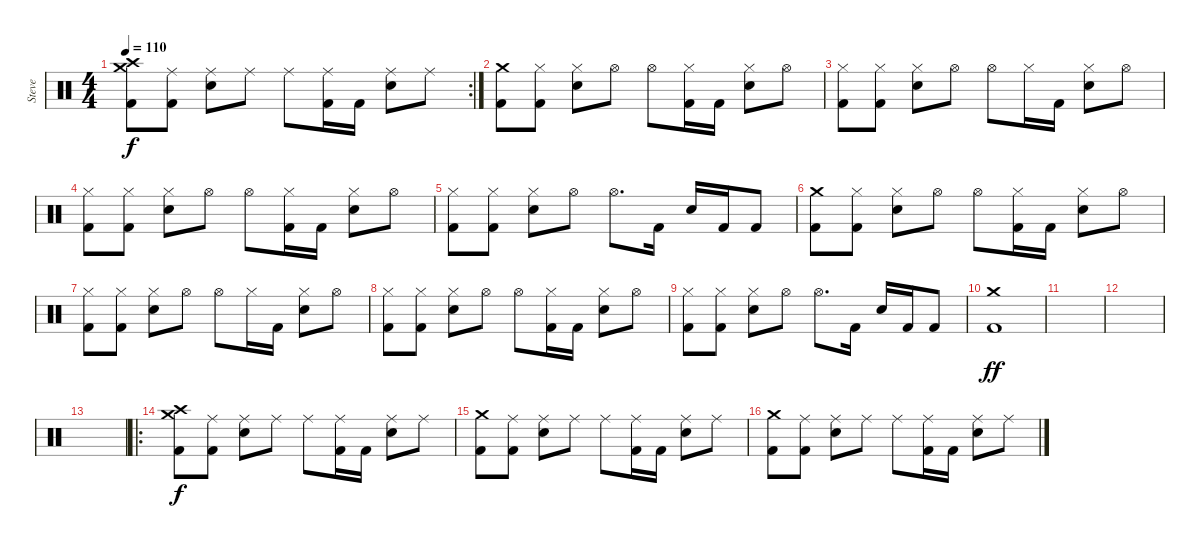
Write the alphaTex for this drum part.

\track ("Steve " "Steve ") {instrument percussion}
\staff {score}
\articulation defaults
\rc 2
\ts (4 4)
\tempo 110
\clef neutral
\ks c
("Crash medium (hit)" "Crash high (hit)" "Kick (hit) 2").8{dy f} ("Ride (middle)" "Kick (hit) 2").8 ("Ride (middle)" "Electric Snare (hit)").8 "Ride (middle)".8 "Ride (middle)".8 ("Ride (middle)" "Kick (hit) 2").16 "Kick (hit) 2".16 ("Ride (middle)" "Electric Snare (hit)").8 "Ride (middle)".8 |
("Crash medium (hit)" "Kick (hit) 2").8 ("Hi-Hat (closed)" "Kick (hit) 2").8 ("Hi-Hat (closed)" "Electric Snare (hit)").8 "Hi-Hat (open)".8 "Hi-Hat (open)".8 ("Hi-Hat (closed)" "Kick (hit) 2").16 "Kick (hit) 2".16 ("Hi-Hat (closed)" "Electric Snare (hit)").8 "Hi-Hat (open)".8 |
("Hi-Hat (closed)" "Kick (hit) 2").8 ("Hi-Hat (closed)" "Kick (hit) 2").8 ("Hi-Hat (closed)" "Electric Snare (hit)").8 "Hi-Hat (open)".8 "Hi-Hat (open)".8 "Hi-Hat (closed)".16 "Kick (hit) 2".16 ("Hi-Hat (closed)" "Electric Snare (hit)").8 "Hi-Hat (open)".8 |
("Hi-Hat (closed)" "Kick (hit) 2").8 ("Hi-Hat (closed)" "Kick (hit) 2").8 ("Hi-Hat (closed)" "Electric Snare (hit)").8 "Hi-Hat (open)".8 "Hi-Hat (open)".8 ("Hi-Hat (closed)" "Kick (hit) 2").16 "Kick (hit) 2".16 ("Hi-Hat (closed)" "Electric Snare (hit)").8 "Hi-Hat (open)".8 |
("Hi-Hat (closed)" "Kick (hit) 2").8 ("Hi-Hat (closed)" "Kick (hit) 2").8 ("Hi-Hat (closed)" "Electric Snare (hit)").8 "Hi-Hat (open)".8 "Hi-Hat (open)".8{d} "Kick (hit) 2".16 "Electric Snare (hit)".16 "Kick (hit) 2".16 "Kick (hit) 2".8 |
("Crash medium (hit)" "Kick (hit) 2").8 ("Hi-Hat (closed)" "Kick (hit) 2").8 ("Hi-Hat (closed)" "Electric Snare (hit)").8 "Hi-Hat (open)".8 "Hi-Hat (open)".8 ("Hi-Hat (closed)" "Kick (hit) 2").16 "Kick (hit) 2".16 ("Hi-Hat (closed)" "Electric Snare (hit)").8 "Hi-Hat (open)".8 |
("Hi-Hat (closed)" "Kick (hit) 2").8 ("Hi-Hat (closed)" "Kick (hit) 2").8 ("Hi-Hat (closed)" "Electric Snare (hit)").8 "Hi-Hat (open)".8 "Hi-Hat (open)".8 "Hi-Hat (closed)".16 "Kick (hit) 2".16 ("Hi-Hat (closed)" "Electric Snare (hit)").8 "Hi-Hat (open)".8 |
("Hi-Hat (closed)" "Kick (hit) 2").8 ("Hi-Hat (closed)" "Kick (hit) 2").8 ("Hi-Hat (closed)" "Electric Snare (hit)").8 "Hi-Hat (open)".8 "Hi-Hat (open)".8 ("Hi-Hat (closed)" "Kick (hit) 2").16 "Kick (hit) 2".16 ("Hi-Hat (closed)" "Electric Snare (hit)").8 "Hi-Hat (open)".8 |
("Hi-Hat (closed)" "Kick (hit) 2").8 ("Hi-Hat (closed)" "Kick (hit) 2").8 ("Hi-Hat (closed)" "Electric Snare (hit)").8 "Hi-Hat (open)".8 "Hi-Hat (open)".8{d} "Kick (hit) 2".16 "Electric Snare (hit)".16 "Kick (hit) 2".16 "Kick (hit) 2".8 |
("Kick (hit) 2" "Crash medium (hit)").1{dy ff} |
|
|
|
\ro
("Crash medium (hit)" "Crash high (hit)" "Kick (hit) 2").8{dy f} ("Ride (middle)" "Kick (hit) 2").8 ("Ride (middle)" "Electric Snare (hit)").8 "Ride (middle)".8 "Ride (middle)".8 ("Ride (middle)" "Kick (hit) 2").16 "Kick (hit) 2".16 ("Ride (middle)" "Electric Snare (hit)").8 "Ride (middle)".8 |
("Crash medium (hit)" "Kick (hit) 2").8 ("Ride (middle)" "Kick (hit) 2").8 ("Ride (middle)" "Electric Snare (hit)").8 "Ride (middle)".8 "Ride (middle)".8 ("Ride (middle)" "Kick (hit) 2").16 "Kick (hit) 2".16 ("Ride (middle)" "Electric Snare (hit)").8 "Ride (middle)".8 |
("Crash medium (hit)" "Kick (hit) 2").8 ("Ride (middle)" "Kick (hit) 2").8 ("Ride (middle)" "Electric Snare (hit)").8 "Ride (middle)".8 "Ride (middle)".8 ("Ride (middle)" "Kick (hit) 2").16 "Kick (hit) 2".16 ("Ride (middle)" "Electric Snare (hit)").8 "Ride (middle)".8
